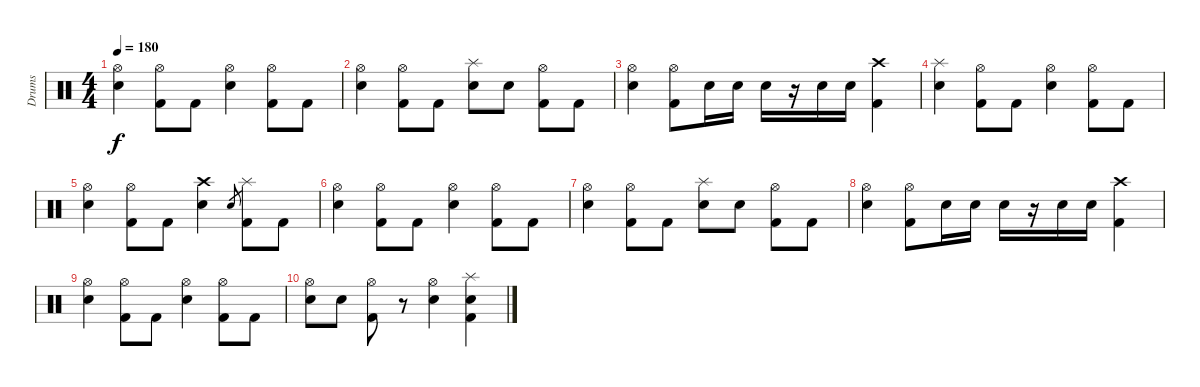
\track ("Drums" "Drums") {instrument percussion}
\staff {score}
\articulation defaults
\ts (4 4)
\tempo 180
\clef neutral
\ks c
("Hi-Hat (open)" "Snare (hit) 2").4{dy f} ("Hi-Hat (open)" "Kick (hit) 2").8 "Kick (hit) 2".8 ("Hi-Hat (open)" "Snare (hit) 2").4 ("Hi-Hat (open)" "Kick (hit) 2").8 "Kick (hit) 2".8 |
("Hi-Hat (open)" "Snare (hit) 2").4 ("Hi-Hat (open)" "Kick (hit) 2").8 "Kick (hit) 2".8 ("Splash (hit)" "Snare (hit) 2").8 "Snare (hit) 2".8 ("Hi-Hat (open)" "Kick (hit) 2").8 "Kick (hit) 2".8 |
("Hi-Hat (open)" "Snare (hit) 2").4 ("Hi-Hat (open)" "Kick (hit) 2").8 "Snare (hit) 2".16 "Snare (hit) 2".16 "Snare (hit) 2".16 r.16 "Snare (hit) 2".16 "Snare (hit) 2".16 ("Crash high (hit)" "Kick (hit) 2").4 |
("Splash (hit)" "Snare (hit) 2").4 ("Hi-Hat (open)" "Kick (hit) 2").8 "Kick (hit) 2".8 ("Hi-Hat (open)" "Snare (hit) 2").4 ("Hi-Hat (open)" "Kick (hit) 2").8 "Kick (hit) 2".8 |
("Hi-Hat (open)" "Snare (hit) 2").4 ("Hi-Hat (open)" "Kick (hit) 2").8 "Kick (hit) 2".8 ("Crash high (hit)" "Snare (hit) 2").4 "Snare (hit) 2".8{gr} ("Splash (hit)" "Kick (hit) 2").8 "Kick (hit) 2".8 |
("Hi-Hat (open)" "Snare (hit) 2").4 ("Hi-Hat (open)" "Kick (hit) 2").8 "Kick (hit) 2".8 ("Hi-Hat (open)" "Snare (hit) 2").4 ("Hi-Hat (open)" "Kick (hit) 2").8 "Kick (hit) 2".8 |
("Hi-Hat (open)" "Snare (hit) 2").4 ("Hi-Hat (open)" "Kick (hit) 2").8 "Kick (hit) 2".8 ("Splash (hit)" "Snare (hit) 2").8 "Snare (hit) 2".8 ("Hi-Hat (open)" "Kick (hit) 2").8 "Kick (hit) 2".8 |
("Hi-Hat (open)" "Snare (hit) 2").4 ("Hi-Hat (open)" "Kick (hit) 2").8 "Snare (hit) 2".16 "Snare (hit) 2".16 "Snare (hit) 2".16 r.16 "Snare (hit) 2".16 "Snare (hit) 2".16 ("Crash high (hit)" "Kick (hit) 2").4 |
("Hi-Hat (open)" "Snare (hit) 2").4 ("Hi-Hat (open)" "Kick (hit) 2").8 "Kick (hit) 2".8 ("Hi-Hat (open)" "Snare (hit) 2").4 ("Hi-Hat (open)" "Kick (hit) 2").8 "Kick (hit) 2".8 |
("Hi-Hat (open)" "Snare (hit) 2").8 "Snare (hit) 2".8 ("Hi-Hat (open)" "Kick (hit) 2").8 r.8 ("Hi-Hat (open)" "Snare (hit) 2").4 ("Splash (hit)" "Snare (hit) 2" "Kick (hit) 2").4
